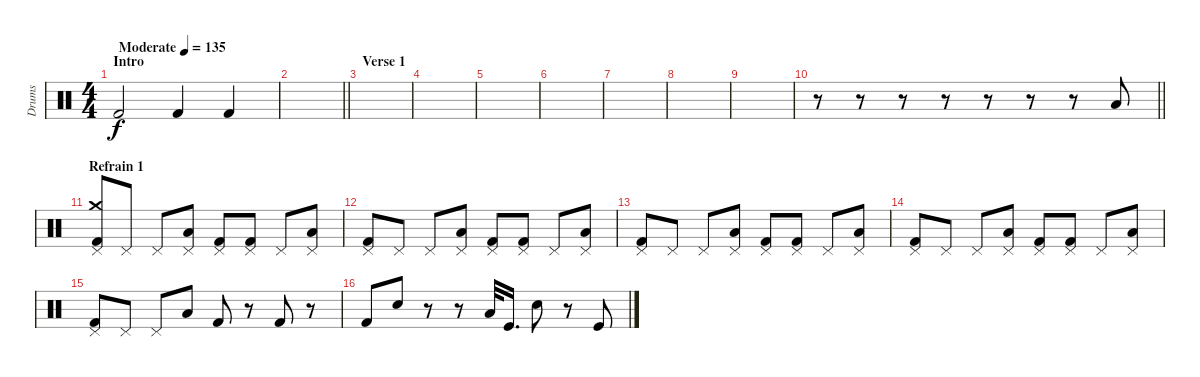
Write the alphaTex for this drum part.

\track ("Drums" "Drums") {instrument percussion}
\staff {score}
\articulation defaults
\ts (4 4)
\section ("" "Intro")
\tempo (135 "Moderate")
\clef neutral
\ks c "Kick (hit) 2".2{dy f} "Kick (hit) 2".4 "Kick (hit) 2".4
|
\barLineRight lightlight
|
\section ("" "Verse 1")
|
|
|
|
|
|
|
\barLineRight lightlight
r.8 r.8 r.8 r.8 r.8 r.8 r.8 "Low Tom (hit)".8 |
\section ("" "Refrain 1")
("Kick (hit) 2" "Crash medium (hit)" "Pedal Hi-Hat (hit)").8 "Pedal Hi-Hat (hit)".8 "Pedal Hi-Hat (hit)".8 ("Low Tom (hit)" "Pedal Hi-Hat (hit)").8 ("Kick (hit) 2" "Pedal Hi-Hat (hit)").8 ("Kick (hit) 2" "Pedal Hi-Hat (hit)").8 "Pedal Hi-Hat (hit)".8 ("Low Tom (hit)" "Pedal Hi-Hat (hit)").8 |
("Kick (hit) 2" "Pedal Hi-Hat (hit)").8 "Pedal Hi-Hat (hit)".8 "Pedal Hi-Hat (hit)".8 ("Low Tom (hit)" "Pedal Hi-Hat (hit)").8 ("Kick (hit) 2" "Pedal Hi-Hat (hit)").8 ("Kick (hit) 2" "Pedal Hi-Hat (hit)").8 "Pedal Hi-Hat (hit)".8 ("Low Tom (hit)" "Pedal Hi-Hat (hit)").8 |
("Kick (hit) 2" "Pedal Hi-Hat (hit)").8 "Pedal Hi-Hat (hit)".8 "Pedal Hi-Hat (hit)".8 ("Low Tom (hit)" "Pedal Hi-Hat (hit)").8 ("Kick (hit) 2" "Pedal Hi-Hat (hit)").8 ("Kick (hit) 2" "Pedal Hi-Hat (hit)").8 "Pedal Hi-Hat (hit)".8 ("Low Tom (hit)" "Pedal Hi-Hat (hit)").8 |
("Kick (hit) 2" "Pedal Hi-Hat (hit)").8 "Pedal Hi-Hat (hit)".8 "Pedal Hi-Hat (hit)".8 ("Low Tom (hit)" "Pedal Hi-Hat (hit)").8 ("Kick (hit) 2" "Pedal Hi-Hat (hit)").8 ("Kick (hit) 2" "Pedal Hi-Hat (hit)").8 "Pedal Hi-Hat (hit)".8 ("Low Tom (hit)" "Pedal Hi-Hat (hit)").8 |
("Kick (hit) 2" "Pedal Hi-Hat (hit)").8 "Pedal Hi-Hat (hit)".8 "Pedal Hi-Hat (hit)".8 "Low Tom (hit)".8 "Kick (hit) 2".8 r.8 "Kick (hit) 2".8 r.8 |
"Kick (hit) 2".8 "Snare (hit) 2".8 r.8 r.8 "Low Tom (hit)".32 "Kick (hit)".16{d beam split} "Snare (hit) 2".8 r.8 "Kick (hit)".8
